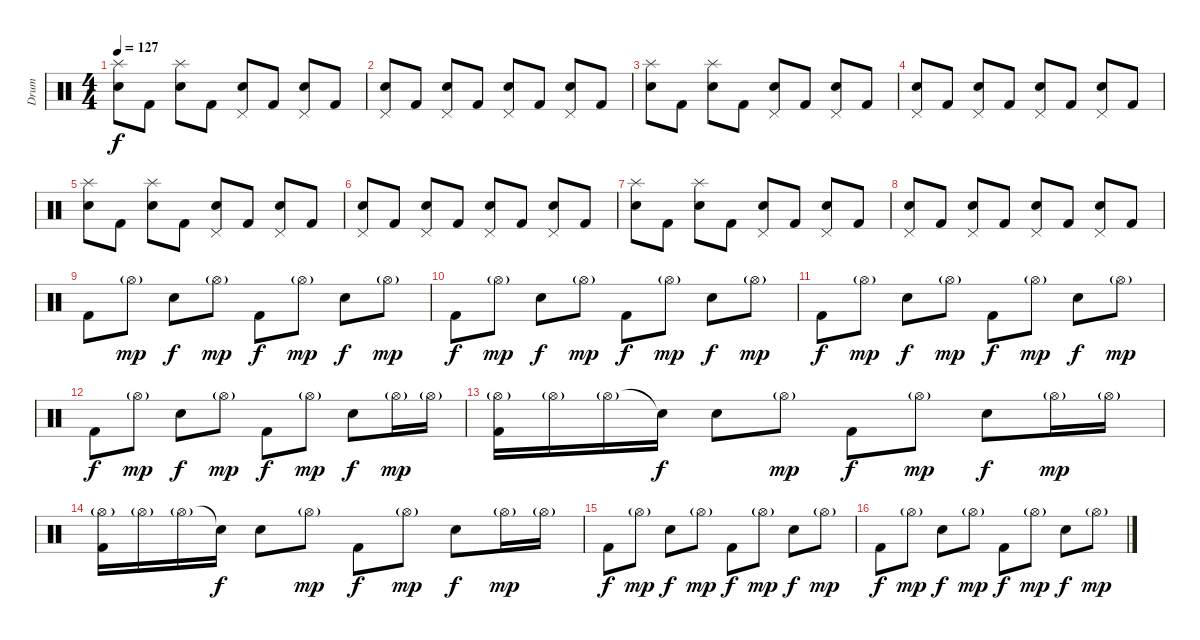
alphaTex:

\track ("Drum" "Drum") {instrument percussion}
\staff {score}
\articulation defaults
\ts (4 4)
\tempo 127
\clef neutral
\ks c
("Electric Snare (hit)" "Splash (hit)").8{dy f} "Kick (hit) 2".8 ("Electric Snare (hit)" "Splash (hit)").8 "Kick (hit) 2".8 ("Electric Snare (hit)" "Pedal Hi-Hat (hit)").8 "Kick (hit) 2".8 ("Electric Snare (hit)" "Pedal Hi-Hat (hit)").8 "Kick (hit) 2".8 |
("Electric Snare (hit)" "Pedal Hi-Hat (hit)").8 "Kick (hit) 2".8 ("Electric Snare (hit)" "Pedal Hi-Hat (hit)").8 "Kick (hit) 2".8 ("Electric Snare (hit)" "Pedal Hi-Hat (hit)").8 "Kick (hit) 2".8 ("Electric Snare (hit)" "Pedal Hi-Hat (hit)").8 "Kick (hit) 2".8 |
("Electric Snare (hit)" "Splash (hit)").8 "Kick (hit) 2".8 ("Electric Snare (hit)" "Splash (hit)").8 "Kick (hit) 2".8 ("Electric Snare (hit)" "Pedal Hi-Hat (hit)").8 "Kick (hit) 2".8 ("Electric Snare (hit)" "Pedal Hi-Hat (hit)").8 "Kick (hit) 2".8 |
("Electric Snare (hit)" "Pedal Hi-Hat (hit)").8 "Kick (hit) 2".8 ("Electric Snare (hit)" "Pedal Hi-Hat (hit)").8 "Kick (hit) 2".8 ("Electric Snare (hit)" "Pedal Hi-Hat (hit)").8 "Kick (hit) 2".8 ("Electric Snare (hit)" "Pedal Hi-Hat (hit)").8 "Kick (hit) 2".8 |
("Electric Snare (hit)" "Splash (hit)").8 "Kick (hit) 2".8 ("Electric Snare (hit)" "Splash (hit)").8 "Kick (hit) 2".8 ("Electric Snare (hit)" "Pedal Hi-Hat (hit)").8 "Kick (hit) 2".8 ("Electric Snare (hit)" "Pedal Hi-Hat (hit)").8 "Kick (hit) 2".8 |
("Electric Snare (hit)" "Pedal Hi-Hat (hit)").8 "Kick (hit) 2".8 ("Electric Snare (hit)" "Pedal Hi-Hat (hit)").8 "Kick (hit) 2".8 ("Electric Snare (hit)" "Pedal Hi-Hat (hit)").8 "Kick (hit) 2".8 ("Electric Snare (hit)" "Pedal Hi-Hat (hit)").8 "Kick (hit) 2".8 |
("Electric Snare (hit)" "Splash (hit)").8 "Kick (hit) 2".8 ("Electric Snare (hit)" "Splash (hit)").8 "Kick (hit) 2".8 ("Electric Snare (hit)" "Pedal Hi-Hat (hit)").8 "Kick (hit) 2".8 ("Electric Snare (hit)" "Pedal Hi-Hat (hit)").8 "Kick (hit) 2".8 |
("Electric Snare (hit)" "Pedal Hi-Hat (hit)").8 "Kick (hit) 2".8 ("Electric Snare (hit)" "Pedal Hi-Hat (hit)").8 "Kick (hit) 2".8 ("Electric Snare (hit)" "Pedal Hi-Hat (hit)").8 "Kick (hit) 2".8 ("Electric Snare (hit)" "Pedal Hi-Hat (hit)").8 "Kick (hit) 2".8 |
"Kick (hit) 2".8 "Hi-Hat (open)"{g}.8{dy mp} "Electric Snare (hit)".8{dy f} "Hi-Hat (open)"{g}.8{dy mp} "Kick (hit) 2".8{dy f} "Hi-Hat (open)"{g}.8{dy mp} "Electric Snare (hit)".8{dy f} "Hi-Hat (open)"{g}.8{dy mp} |
"Kick (hit) 2".8{dy f} "Hi-Hat (open)"{g}.8{dy mp} "Electric Snare (hit)".8{dy f} "Hi-Hat (open)"{g}.8{dy mp} "Kick (hit) 2".8{dy f} "Hi-Hat (open)"{g}.8{dy mp} "Electric Snare (hit)".8{dy f} "Hi-Hat (open)"{g}.8{dy mp} |
"Kick (hit) 2".8{dy f} "Hi-Hat (open)"{g}.8{dy mp} "Electric Snare (hit)".8{dy f} "Hi-Hat (open)"{g}.8{dy mp} "Kick (hit) 2".8{dy f} "Hi-Hat (open)"{g}.8{dy mp} "Electric Snare (hit)".8{dy f} "Hi-Hat (open)"{g}.8{dy mp} |
"Kick (hit) 2".8{dy f} "Hi-Hat (open)"{g}.8{dy mp} "Electric Snare (hit)".8{dy f} "Hi-Hat (open)"{g}.8{dy mp} "Kick (hit) 2".8{dy f} "Hi-Hat (open)"{g}.8{dy mp} "Electric Snare (hit)".8{dy f} "Hi-Hat (open)"{g}.16{dy mp} "Hi-Hat (open)"{g}.16 |
("Kick (hit) 2" "Hi-Hat (open)"{g}).16 "Hi-Hat (open)"{g}.16 "Hi-Hat (open)"{g}.16 "Snare (hit)"{t}.16{dy f} "Electric Snare (hit)".8 "Hi-Hat (open)"{g}.8{dy mp} "Kick (hit) 2".8{dy f} "Hi-Hat (open)"{g}.8{dy mp} "Electric Snare (hit)".8{dy f} "Hi-Hat (open)"{g}.16{dy mp} "Hi-Hat (open)"{g}.16 |
("Kick (hit) 2" "Hi-Hat (open)"{g}).16 "Hi-Hat (open)"{g}.16 "Hi-Hat (open)"{g}.16 "Snare (hit)"{t}.16{dy f} "Electric Snare (hit)".8 "Hi-Hat (open)"{g}.8{dy mp} "Kick (hit) 2".8{dy f} "Hi-Hat (open)"{g}.8{dy mp} "Electric Snare (hit)".8{dy f} "Hi-Hat (open)"{g}.16{dy mp} "Hi-Hat (open)"{g}.16 |
"Kick (hit) 2".8{dy f} "Hi-Hat (open)"{g}.8{dy mp} "Electric Snare (hit)".8{dy f} "Hi-Hat (open)"{g}.8{dy mp} "Kick (hit) 2".8{dy f} "Hi-Hat (open)"{g}.8{dy mp} "Electric Snare (hit)".8{dy f} "Hi-Hat (open)"{g}.8{dy mp} |
"Kick (hit) 2".8{dy f} "Hi-Hat (open)"{g}.8{dy mp} "Electric Snare (hit)".8{dy f} "Hi-Hat (open)"{g}.8{dy mp} "Kick (hit) 2".8{dy f} "Hi-Hat (open)"{g}.8{dy mp} "Electric Snare (hit)".8{dy f} "Hi-Hat (open)"{g}.8{dy mp}
